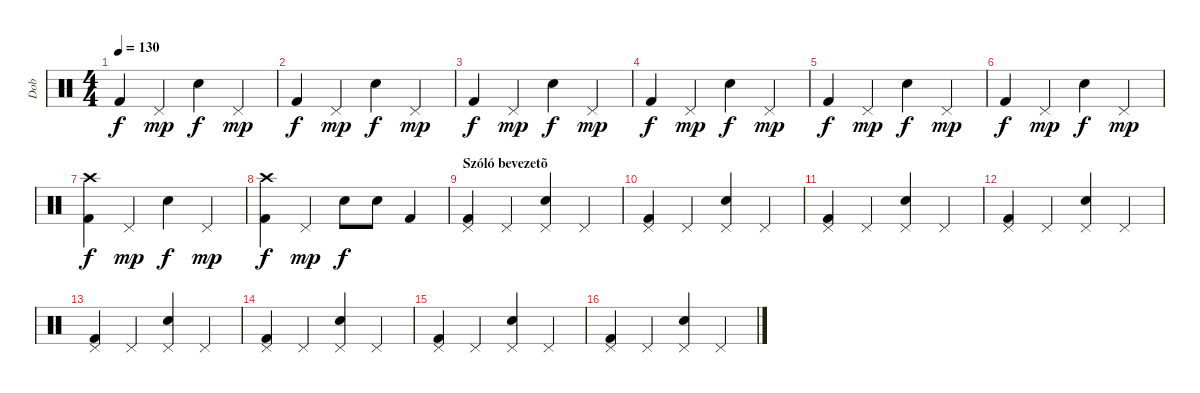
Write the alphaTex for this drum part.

\track ("Dob" "Dob") {instrument percussion}
\staff {score}
\articulation defaults
\ts (4 4)
\tempo 130
\clef neutral
\ks c "Kick (hit) 2".4{dy f} "Pedal Hi-Hat (hit)".4{dy mp} "Snare (hit) 2".4{dy f} "Pedal Hi-Hat (hit)".4{dy mp}
|
"Kick (hit) 2".4{dy f} "Pedal Hi-Hat (hit)".4{dy mp} "Snare (hit) 2".4{dy f} "Pedal Hi-Hat (hit)".4{dy mp} |
"Kick (hit) 2".4{dy f} "Pedal Hi-Hat (hit)".4{dy mp} "Snare (hit) 2".4{dy f} "Pedal Hi-Hat (hit)".4{dy mp} |
"Kick (hit) 2".4{dy f} "Pedal Hi-Hat (hit)".4{dy mp} "Snare (hit) 2".4{dy f} "Pedal Hi-Hat (hit)".4{dy mp} |
"Kick (hit) 2".4{dy f} "Pedal Hi-Hat (hit)".4{dy mp} "Snare (hit) 2".4{dy f} "Pedal Hi-Hat (hit)".4{dy mp} |
"Kick (hit) 2".4{dy f} "Pedal Hi-Hat (hit)".4{dy mp} "Snare (hit) 2".4{dy f} "Pedal Hi-Hat (hit)".4{dy mp} |
("Crash high (hit)" "Kick (hit) 2").4{dy f} "Pedal Hi-Hat (hit)".4{dy mp} "Snare (hit) 2".4{dy f} "Pedal Hi-Hat (hit)".4{dy mp} |
("Crash high (hit)" "Kick (hit) 2").4{dy f} "Pedal Hi-Hat (hit)".4{dy mp} "Snare (hit) 2".8{dy f} "Snare (hit) 2".8 "Kick (hit) 2".4 |
\section ("" "Szóló bevezetõ")
("Pedal Hi-Hat (hit)" "Kick (hit) 2").4 "Pedal Hi-Hat (hit)".4 ("Pedal Hi-Hat (hit)" "Snare (hit) 2").4 "Pedal Hi-Hat (hit)".4 |
("Pedal Hi-Hat (hit)" "Kick (hit) 2").4 "Pedal Hi-Hat (hit)".4 ("Pedal Hi-Hat (hit)" "Snare (hit) 2").4 "Pedal Hi-Hat (hit)".4 |
("Pedal Hi-Hat (hit)" "Kick (hit) 2").4 "Pedal Hi-Hat (hit)".4 ("Pedal Hi-Hat (hit)" "Snare (hit) 2").4 "Pedal Hi-Hat (hit)".4 |
("Pedal Hi-Hat (hit)" "Kick (hit) 2").4 "Pedal Hi-Hat (hit)".4 ("Pedal Hi-Hat (hit)" "Snare (hit) 2").4 "Pedal Hi-Hat (hit)".4 |
("Pedal Hi-Hat (hit)" "Kick (hit) 2").4 "Pedal Hi-Hat (hit)".4 ("Pedal Hi-Hat (hit)" "Snare (hit) 2").4 "Pedal Hi-Hat (hit)".4 |
("Pedal Hi-Hat (hit)" "Kick (hit) 2").4 "Pedal Hi-Hat (hit)".4 ("Pedal Hi-Hat (hit)" "Snare (hit) 2").4 "Pedal Hi-Hat (hit)".4 |
("Pedal Hi-Hat (hit)" "Kick (hit) 2").4 "Pedal Hi-Hat (hit)".4 ("Pedal Hi-Hat (hit)" "Snare (hit) 2").4 "Pedal Hi-Hat (hit)".4 |
("Pedal Hi-Hat (hit)" "Kick (hit) 2").4 "Pedal Hi-Hat (hit)".4 ("Pedal Hi-Hat (hit)" "Snare (hit) 2").4 "Pedal Hi-Hat (hit)".4
